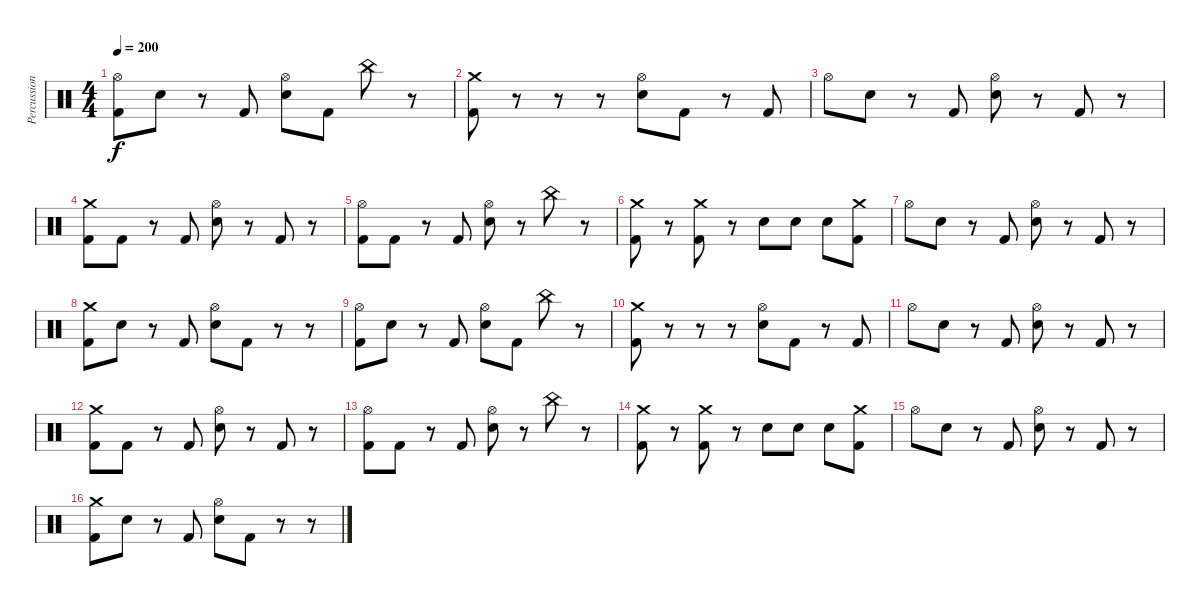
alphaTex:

\track ("Percussion" "Percussion") {instrument percussion}
\staff {score}
\articulation defaults
\ts (4 4)
\tempo 200
\clef neutral
\ks c
("Hi-Hat (open)" "Kick (hit) 2").8{dy f} "Electric Snare (hit)".8 r.8 "Kick (hit) 2".8 ("Hi-Hat (open)" "Electric Snare (hit)").8 "Kick (hit) 2".8 "China (hit)".8 r.8 |
("Crash medium (hit)" "Kick (hit) 2").8 r.8 r.8 r.8 ("Hi-Hat (open)" "Electric Snare (hit)").8 "Kick (hit) 2".8 r.8 "Kick (hit) 2".8 |
"Hi-Hat (open)".8 "Electric Snare (hit)".8 r.8 "Kick (hit) 2".8 ("Hi-Hat (open)" "Electric Snare (hit)").8 r.8 "Kick (hit) 2".8 r.8 |
("Crash medium (hit)" "Kick (hit) 2").8 "Kick (hit) 2".8 r.8 "Kick (hit) 2".8 ("Hi-Hat (open)" "Electric Snare (hit)").8 r.8 "Kick (hit) 2".8 r.8 |
("Hi-Hat (open)" "Kick (hit) 2").8 "Kick (hit) 2".8 r.8 "Kick (hit) 2".8 ("Hi-Hat (open)" "Electric Snare (hit)").8 r.8 "China (hit)".8 r.8 |
("Crash medium (hit)" "Kick (hit) 2").8 r.8 ("Crash medium (hit)" "Kick (hit) 2").8 r.8 "Electric Snare (hit)".8 "Electric Snare (hit)".8 "Electric Snare (hit)".8 ("Crash medium (hit)" "Kick (hit) 2").8 |
"Hi-Hat (open)".8 "Electric Snare (hit)".8 r.8 "Kick (hit) 2".8 ("Hi-Hat (open)" "Electric Snare (hit)").8 r.8 "Kick (hit) 2".8 r.8 |
("Crash medium (hit)" "Kick (hit) 2").8 "Electric Snare (hit)".8 r.8 "Kick (hit) 2".8 ("Hi-Hat (open)" "Electric Snare (hit)").8 "Kick (hit) 2".8 r.8 r.8 |
("Hi-Hat (open)" "Kick (hit) 2").8 "Electric Snare (hit)".8 r.8 "Kick (hit) 2".8 ("Hi-Hat (open)" "Electric Snare (hit)").8 "Kick (hit) 2".8 "China (hit)".8 r.8 |
("Crash medium (hit)" "Kick (hit) 2").8 r.8 r.8 r.8 ("Hi-Hat (open)" "Electric Snare (hit)").8 "Kick (hit) 2".8 r.8 "Kick (hit) 2".8 |
"Hi-Hat (open)".8 "Electric Snare (hit)".8 r.8 "Kick (hit) 2".8 ("Hi-Hat (open)" "Electric Snare (hit)").8 r.8 "Kick (hit) 2".8 r.8 |
("Crash medium (hit)" "Kick (hit) 2").8 "Kick (hit) 2".8 r.8 "Kick (hit) 2".8 ("Hi-Hat (open)" "Electric Snare (hit)").8 r.8 "Kick (hit) 2".8 r.8 |
("Hi-Hat (open)" "Kick (hit) 2").8 "Kick (hit) 2".8 r.8 "Kick (hit) 2".8 ("Hi-Hat (open)" "Electric Snare (hit)").8 r.8 "China (hit)".8 r.8 |
("Crash medium (hit)" "Kick (hit) 2").8 r.8 ("Crash medium (hit)" "Kick (hit) 2").8 r.8 "Electric Snare (hit)".8 "Electric Snare (hit)".8 "Electric Snare (hit)".8 ("Crash medium (hit)" "Kick (hit) 2").8 |
"Hi-Hat (open)".8 "Electric Snare (hit)".8 r.8 "Kick (hit) 2".8 ("Hi-Hat (open)" "Electric Snare (hit)").8 r.8 "Kick (hit) 2".8 r.8 |
("Crash medium (hit)" "Kick (hit) 2").8 "Electric Snare (hit)".8 r.8 "Kick (hit) 2".8 ("Hi-Hat (open)" "Electric Snare (hit)").8 "Kick (hit) 2".8 r.8 r.8
